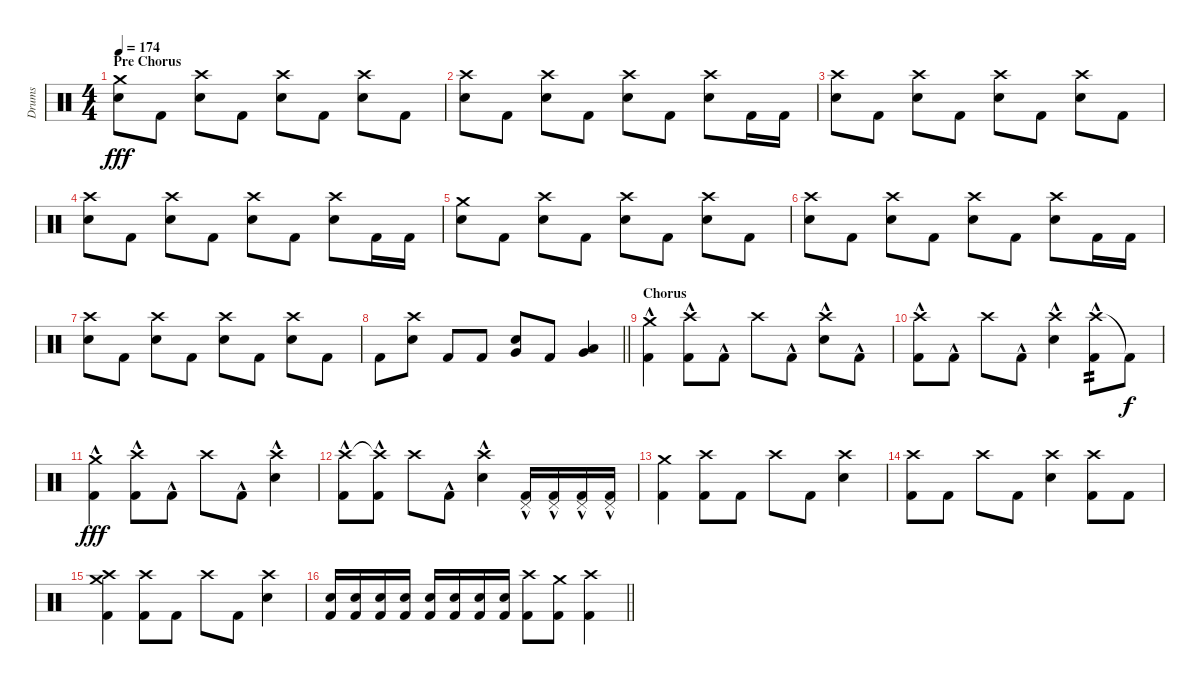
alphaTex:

\track ("Drums" "Drums") {instrument percussion}
\staff {score}
\articulation defaults
\ts (4 4)
\section ("" "Pre Chorus")
\tempo 174
\clef neutral
\ks c
("Crash medium (hit)" "Snare (hit) 2").8{dy fff} "Kick (hit) 2".8 ("Crash high (hit)" "Snare (hit) 2").8 "Kick (hit) 2".8 ("Crash high (hit)" "Snare (hit) 2").8 "Kick (hit) 2".8 ("Crash high (hit)" "Snare (hit) 2").8 "Kick (hit) 2".8 |
("Crash high (hit)" "Snare (hit) 2").8 "Kick (hit) 2".8 ("Crash high (hit)" "Snare (hit) 2").8 "Kick (hit) 2".8 ("Crash high (hit)" "Snare (hit) 2").8 "Kick (hit) 2".8 ("Crash high (hit)" "Snare (hit) 2").8 "Kick (hit) 2".16 "Kick (hit) 2".16 |
("Crash high (hit)" "Snare (hit) 2").8 "Kick (hit) 2".8 ("Crash high (hit)" "Snare (hit) 2").8 "Kick (hit) 2".8 ("Crash high (hit)" "Snare (hit) 2").8 "Kick (hit) 2".8 ("Crash high (hit)" "Snare (hit) 2").8 "Kick (hit) 2".8 |
("Crash high (hit)" "Snare (hit) 2").8 "Kick (hit) 2".8 ("Crash high (hit)" "Snare (hit) 2").8 "Kick (hit) 2".8 ("Crash high (hit)" "Snare (hit) 2").8 "Kick (hit) 2".8 ("Crash high (hit)" "Snare (hit) 2").8 "Kick (hit) 2".16 "Kick (hit) 2".16 |
("Crash medium (hit)" "Snare (hit) 2").8 "Kick (hit) 2".8 ("Crash high (hit)" "Snare (hit) 2").8 "Kick (hit) 2".8 ("Crash high (hit)" "Snare (hit) 2").8 "Kick (hit) 2".8 ("Crash high (hit)" "Snare (hit) 2").8 "Kick (hit) 2".8 |
("Crash high (hit)" "Snare (hit) 2").8 "Kick (hit) 2".8 ("Crash high (hit)" "Snare (hit) 2").8 "Kick (hit) 2".8 ("Crash high (hit)" "Snare (hit) 2").8 "Kick (hit) 2".8 ("Crash high (hit)" "Snare (hit) 2").8 "Kick (hit) 2".16 "Kick (hit) 2".16 |
("Crash high (hit)" "Snare (hit) 2").8 "Kick (hit) 2".8 ("Crash high (hit)" "Snare (hit) 2").8 "Kick (hit) 2".8 ("Crash high (hit)" "Snare (hit) 2").8 "Kick (hit) 2".8 ("Crash high (hit)" "Snare (hit) 2").8 "Kick (hit) 2".8 |
\barLineRight lightlight "Kick (hit) 2".8
("Crash high (hit)" "Snare (hit) 2").8 "Kick (hit) 2".8 "Kick (hit) 2".8 ("Snare (hit) 2" "Very Low Tom (hit)").8 "Kick (hit) 2".8 ("Low Tom (hit)" "Very Low Tom (hit)").4 |
\section ("" "Chorus")
("Crash medium (hit)" "Kick (hit) 2"{hac}).4 ("Crash high (hit)" "Kick (hit) 2"{hac}).8 "Kick (hit) 2"{hac}.8 "Crash high (hit)".8 "Kick (hit) 2"{hac}.8 ("Crash high (hit)" "Snare (hit) 2"{hac}).8 "Kick (hit) 2"{hac}.8 |
("Crash high (hit)" "Kick (hit) 2"{hac}).8 "Kick (hit) 2"{hac}.8 "Crash high (hit)".8 "Kick (hit) 2"{hac}.8 ("Crash high (hit)" "Snare (hit) 2"{hac}).4 ("Crash high (hit)" "Kick (hit) 2"{hac}).8{tp 2} "Kick (hit) 2"{t}.8{dy f} |
("Crash medium (hit)" "Kick (hit) 2"{hac}).4{dy fff} ("Crash high (hit)" "Kick (hit) 2"{hac}).8 "Kick (hit) 2"{hac}.8 "Crash high (hit)".8 "Kick (hit) 2"{hac}.8 ("Crash high (hit)" "Snare (hit) 2"{hac}).4 |
("Crash high (hit)" "Kick (hit) 2"{hac}).8 ("Crash high (hit)"{t} "Kick (hit) 2"{hac}).8 "Crash high (hit)".8 "Kick (hit) 2"{hac}.8 ("Crash high (hit)" "Snare (hit) 2"{hac}).4 ("Pedal Hi-Hat (hit)" "Kick (hit) 2"{hac}).16 ("Pedal Hi-Hat (hit)" "Kick (hit) 2"{hac}).16 ("Pedal Hi-Hat (hit)" "Kick (hit) 2"{hac}).16 ("Pedal Hi-Hat (hit)" "Kick (hit) 2"{hac}).16 |
("Crash medium (hit)" "Kick (hit) 2").4 ("Crash high (hit)" "Kick (hit) 2").8 "Kick (hit) 2".8 "Crash high (hit)".8 "Kick (hit) 2".8 ("Crash high (hit)" "Snare (hit) 2").4 |
("Crash high (hit)" "Kick (hit) 2").8 "Kick (hit) 2".8 "Crash high (hit)".8 "Kick (hit) 2".8 ("Crash high (hit)" "Snare (hit) 2").4 ("Crash high (hit)" "Kick (hit) 2").8 "Kick (hit) 2".8 |
("Crash medium (hit)" "Crash high (hit)" "Kick (hit) 2").4 ("Crash high (hit)" "Kick (hit) 2").8 "Kick (hit) 2".8 "Crash high (hit)".8 "Kick (hit) 2".8 ("Crash high (hit)" "Snare (hit) 2").4 |
\barLineRight lightlight
("Snare (hit) 2" "Kick (hit) 2").16 ("Snare (hit) 2" "Kick (hit) 2").16 ("Snare (hit) 2" "Kick (hit) 2").16 ("Snare (hit) 2" "Kick (hit) 2").16 ("Snare (hit) 2" "Kick (hit) 2").16 ("Snare (hit) 2" "Kick (hit) 2").16 ("Snare (hit) 2" "Kick (hit) 2").16 ("Snare (hit) 2" "Kick (hit) 2").16 ("Crash high (hit)" "Kick (hit) 2").8 ("Crash medium (hit)" "Kick (hit) 2").8 ("Crash high (hit)" "Kick (hit) 2").4
